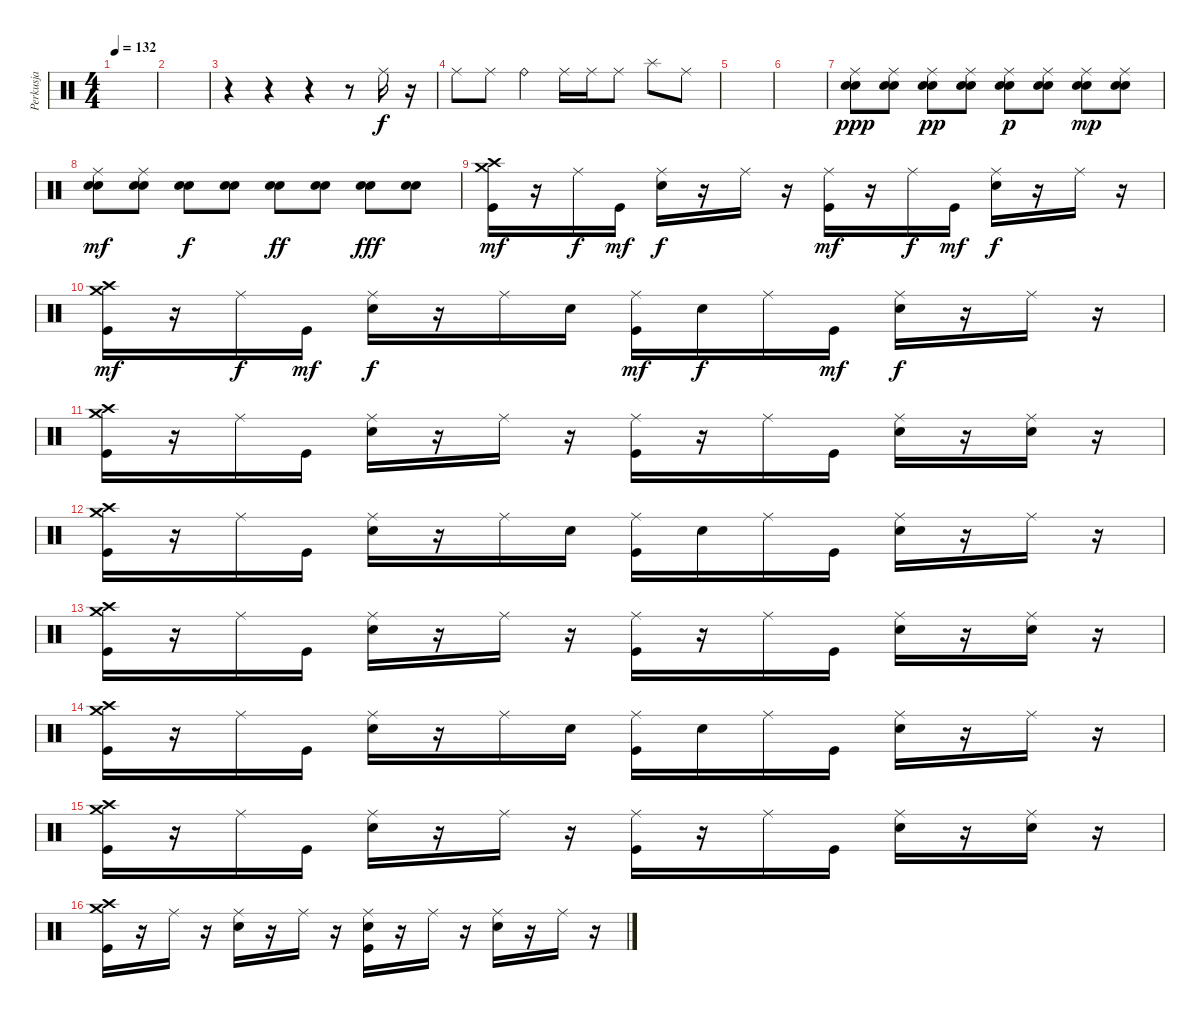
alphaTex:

\track ("Perkusja" "Perkusja") {instrument percussion}
\staff {score}
\articulation defaults
\ts (4 4)
\tempo 132
\clef neutral
\ks c
|
|
r.4 r.4 r.4 r.8 "Ride (middle)".16 r.16 |
"Ride (middle)".8 "Ride (middle)".8 "Ride (bell)".4 "Ride (middle)".16 "Ride (middle)".16 "Ride (middle)".8 "Splash (hit)".8 "Ride (middle)".8 |
|
|
("Ride (middle)" "Electric Snare (hit)" "Electric Snare (hit)").8{dy ppp} ("Ride (middle)" "Electric Snare (hit)" "Electric Snare (hit)").8 ("Ride (middle)" "Electric Snare (hit)" "Electric Snare (hit)").8{dy pp} ("Ride (middle)" "Electric Snare (hit)" "Electric Snare (hit)").8 ("Ride (middle)" "Electric Snare (hit)" "Electric Snare (hit)").8{dy p} ("Ride (middle)" "Electric Snare (hit)" "Electric Snare (hit)").8 ("Ride (middle)" "Electric Snare (hit)" "Electric Snare (hit)").8{dy mp} ("Ride (middle)" "Electric Snare (hit)" "Electric Snare (hit)").8 |
("Ride (middle)" "Electric Snare (hit)" "Electric Snare (hit)").8{dy mf} ("Ride (middle)" "Electric Snare (hit)" "Electric Snare (hit)").8 ("Electric Snare (hit)" "Electric Snare (hit)").8{dy f} ("Electric Snare (hit)" "Electric Snare (hit)").8 ("Electric Snare (hit)" "Electric Snare (hit)").8{dy ff} ("Electric Snare (hit)" "Electric Snare (hit)").8 ("Electric Snare (hit)" "Electric Snare (hit)").8{dy fff} ("Electric Snare (hit)" "Electric Snare (hit)").8 |
("Crash high (hit)" "Crash medium (hit)" "Kick (hit)").16{dy mf} r.16 "Ride (middle)".16{dy f} "Kick (hit)".16{dy mf} ("Ride (middle)" "Electric Snare (hit)").16{dy f} r.16 "Ride (middle)".16 r.16 ("Ride (middle)" "Kick (hit)").16{dy mf} r.16 "Ride (middle)".16{dy f} "Kick (hit)".16{dy mf} ("Ride (middle)" "Electric Snare (hit)").16{dy f} r.16 "Ride (middle)".16 r.16 |
("Crash high (hit)" "Crash medium (hit)" "Kick (hit)").16{dy mf} r.16 "Ride (middle)".16{dy f} "Kick (hit)".16{dy mf} ("Ride (middle)" "Electric Snare (hit)").16{dy f} r.16 "Ride (middle)".16 "Electric Snare (hit)".16 ("Ride (middle)" "Kick (hit)").16{dy mf} "Electric Snare (hit)".16{dy f} "Ride (middle)".16 "Kick (hit)".16{dy mf} ("Ride (middle)" "Electric Snare (hit)").16{dy f} r.16 "Ride (middle)".16 r.16 |
("Crash high (hit)" "Crash medium (hit)" "Kick (hit)").16 r.16 "Ride (middle)".16 "Kick (hit)".16 ("Ride (middle)" "Electric Snare (hit)").16 r.16 "Ride (middle)".16 r.16 ("Ride (middle)" "Kick (hit)").16 r.16 "Ride (middle)".16 "Kick (hit)".16 ("Ride (middle)" "Electric Snare (hit)").16 r.16 ("Ride (middle)" "Electric Snare (hit)").16 r.16 |
("Crash high (hit)" "Crash medium (hit)" "Kick (hit)").16 r.16 "Ride (middle)".16 "Kick (hit)".16 ("Ride (middle)" "Electric Snare (hit)").16 r.16 "Ride (middle)".16 "Electric Snare (hit)".16 ("Ride (middle)" "Kick (hit)").16 "Electric Snare (hit)".16 "Ride (middle)".16 "Kick (hit)".16 ("Ride (middle)" "Electric Snare (hit)").16 r.16 "Ride (middle)".16 r.16 |
("Crash high (hit)" "Crash medium (hit)" "Kick (hit)").16 r.16 "Ride (middle)".16 "Kick (hit)".16 ("Ride (middle)" "Electric Snare (hit)").16 r.16 "Ride (middle)".16 r.16 ("Ride (middle)" "Kick (hit)").16 r.16 "Ride (middle)".16 "Kick (hit)".16 ("Ride (middle)" "Electric Snare (hit)").16 r.16 ("Ride (middle)" "Electric Snare (hit)").16 r.16 |
("Crash high (hit)" "Crash medium (hit)" "Kick (hit)").16 r.16 "Ride (middle)".16 "Kick (hit)".16 ("Ride (middle)" "Electric Snare (hit)").16 r.16 "Ride (middle)".16 "Electric Snare (hit)".16 ("Ride (middle)" "Kick (hit)").16 "Electric Snare (hit)".16 "Ride (middle)".16 "Kick (hit)".16 ("Ride (middle)" "Electric Snare (hit)").16 r.16 "Ride (middle)".16 r.16 |
("Crash high (hit)" "Crash medium (hit)" "Kick (hit)").16 r.16 "Ride (middle)".16 "Kick (hit)".16 ("Ride (middle)" "Electric Snare (hit)").16 r.16 "Ride (middle)".16 r.16 ("Ride (middle)" "Kick (hit)").16 r.16 "Ride (middle)".16 "Kick (hit)".16 ("Ride (middle)" "Electric Snare (hit)").16 r.16 ("Ride (middle)" "Electric Snare (hit)").16 r.16 |
("Crash high (hit)" "Crash medium (hit)" "Kick (hit)").16 r.16 "Ride (middle)".16 r.16 ("Ride (middle)" "Electric Snare (hit)").16 r.16 "Ride (middle)".16 r.16 ("Ride (middle)" "Electric Snare (hit)" "Kick (hit)").16 r.16 "Ride (middle)".16 r.16 ("Ride (middle)" "Electric Snare (hit)").16 r.16 "Ride (middle)".16 r.16
